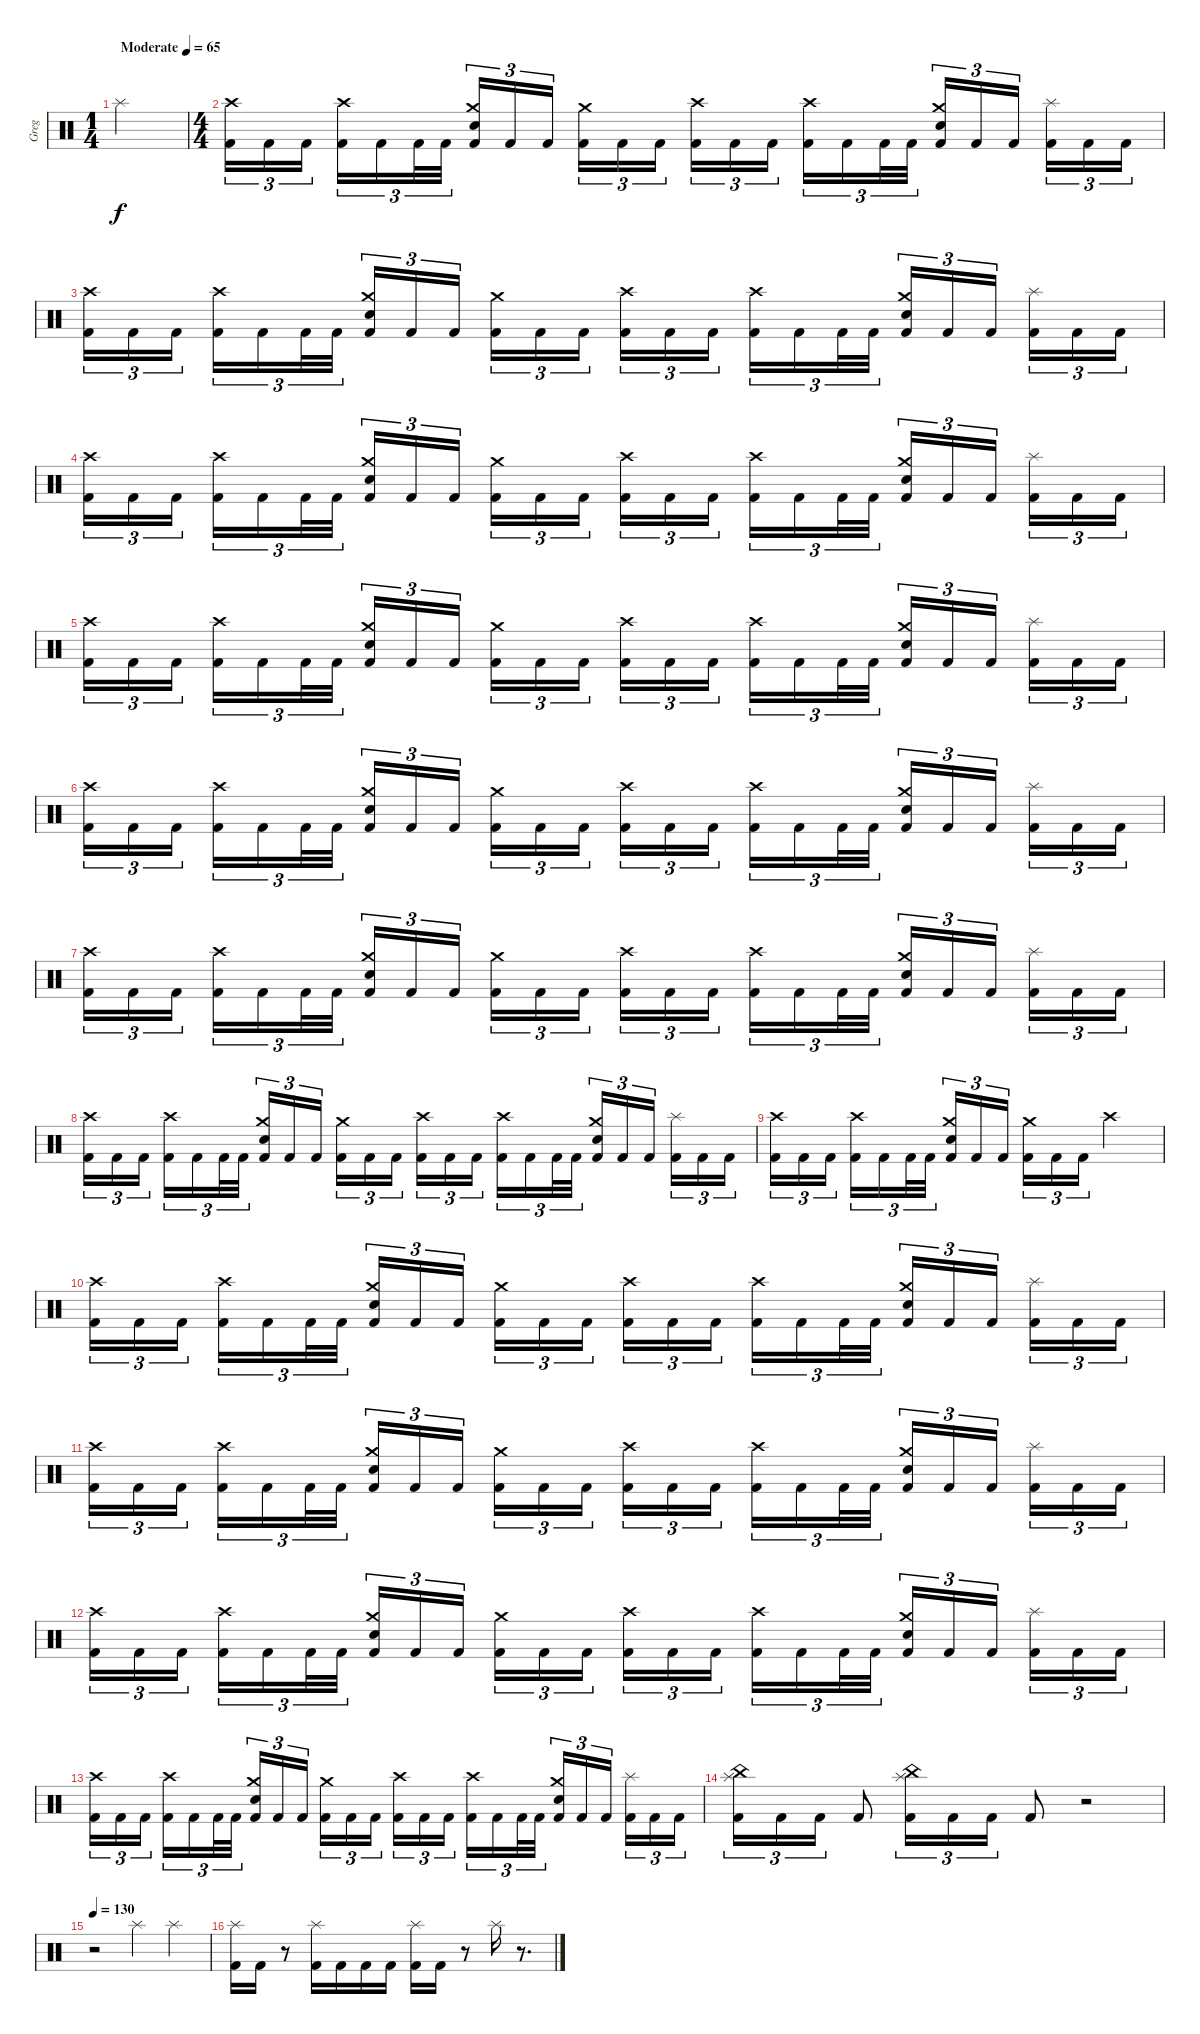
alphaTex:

\track ("Greg" "Greg") {instrument percussion}
\staff {score}
\articulation defaults
\ts (1 4)
\tempo (65 "Moderate")
\clef neutral
\ks c "Splash (hit)".4{dy f}
|
\ts (4 4)
("Crash high (hit)" "Kick (hit) 2").16{tu (3 2)} "Kick (hit) 2".16{tu (3 2)} "Kick (hit) 2".16{tu (3 2) beam splitsecondary} ("Crash high (hit)" "Kick (hit) 2").16{tu (3 2)} "Kick (hit) 2".16{tu (3 2)} "Kick (hit) 2".32{tu (3 2)} "Kick (hit) 2".32{tu (3 2)} ("Crash medium (hit)" "Snare (hit) 2" "Kick (hit) 2").16{tu (3 2)} "Kick (hit) 2".16{tu (3 2)} "Kick (hit) 2".16{tu (3 2) beam splitsecondary} ("Crash medium (hit)" "Kick (hit) 2").16{tu (3 2)} "Kick (hit) 2".16{tu (3 2)} "Kick (hit) 2".16{tu (3 2)} ("Crash high (hit)" "Kick (hit) 2").16{tu (3 2)} "Kick (hit) 2".16{tu (3 2)} "Kick (hit) 2".16{tu (3 2) beam splitsecondary} ("Crash high (hit)" "Kick (hit) 2").16{tu (3 2)} "Kick (hit) 2".16{tu (3 2)} "Kick (hit) 2".32{tu (3 2)} "Kick (hit) 2".32{tu (3 2)} ("Crash medium (hit)" "Snare (hit) 2" "Kick (hit) 2").16{tu (3 2)} "Kick (hit) 2".16{tu (3 2)} "Kick (hit) 2".16{tu (3 2) beam splitsecondary} ("Splash (hit)" "Kick (hit) 2").16{tu (3 2)} "Kick (hit) 2".16{tu (3 2)} "Kick (hit) 2".16{tu (3 2)} |
("Crash high (hit)" "Kick (hit) 2").16{tu (3 2)} "Kick (hit) 2".16{tu (3 2)} "Kick (hit) 2".16{tu (3 2) beam splitsecondary} ("Crash high (hit)" "Kick (hit) 2").16{tu (3 2)} "Kick (hit) 2".16{tu (3 2)} "Kick (hit) 2".32{tu (3 2)} "Kick (hit) 2".32{tu (3 2)} ("Crash medium (hit)" "Snare (hit) 2" "Kick (hit) 2").16{tu (3 2)} "Kick (hit) 2".16{tu (3 2)} "Kick (hit) 2".16{tu (3 2) beam splitsecondary} ("Crash medium (hit)" "Kick (hit) 2").16{tu (3 2)} "Kick (hit) 2".16{tu (3 2)} "Kick (hit) 2".16{tu (3 2)} ("Crash high (hit)" "Kick (hit) 2").16{tu (3 2)} "Kick (hit) 2".16{tu (3 2)} "Kick (hit) 2".16{tu (3 2) beam splitsecondary} ("Crash high (hit)" "Kick (hit) 2").16{tu (3 2)} "Kick (hit) 2".16{tu (3 2)} "Kick (hit) 2".32{tu (3 2)} "Kick (hit) 2".32{tu (3 2)} ("Crash medium (hit)" "Snare (hit) 2" "Kick (hit) 2").16{tu (3 2)} "Kick (hit) 2".16{tu (3 2)} "Kick (hit) 2".16{tu (3 2) beam splitsecondary} ("Splash (hit)" "Kick (hit) 2").16{tu (3 2)} "Kick (hit) 2".16{tu (3 2)} "Kick (hit) 2".16{tu (3 2)} |
("Crash high (hit)" "Kick (hit) 2").16{tu (3 2)} "Kick (hit) 2".16{tu (3 2)} "Kick (hit) 2".16{tu (3 2) beam splitsecondary} ("Crash high (hit)" "Kick (hit) 2").16{tu (3 2)} "Kick (hit) 2".16{tu (3 2)} "Kick (hit) 2".32{tu (3 2)} "Kick (hit) 2".32{tu (3 2)} ("Crash medium (hit)" "Snare (hit) 2" "Kick (hit) 2").16{tu (3 2)} "Kick (hit) 2".16{tu (3 2)} "Kick (hit) 2".16{tu (3 2) beam splitsecondary} ("Crash medium (hit)" "Kick (hit) 2").16{tu (3 2)} "Kick (hit) 2".16{tu (3 2)} "Kick (hit) 2".16{tu (3 2)} ("Crash high (hit)" "Kick (hit) 2").16{tu (3 2)} "Kick (hit) 2".16{tu (3 2)} "Kick (hit) 2".16{tu (3 2) beam splitsecondary} ("Crash high (hit)" "Kick (hit) 2").16{tu (3 2)} "Kick (hit) 2".16{tu (3 2)} "Kick (hit) 2".32{tu (3 2)} "Kick (hit) 2".32{tu (3 2)} ("Crash medium (hit)" "Snare (hit) 2" "Kick (hit) 2").16{tu (3 2)} "Kick (hit) 2".16{tu (3 2)} "Kick (hit) 2".16{tu (3 2) beam splitsecondary} ("Splash (hit)" "Kick (hit) 2").16{tu (3 2)} "Kick (hit) 2".16{tu (3 2)} "Kick (hit) 2".16{tu (3 2)} |
("Crash high (hit)" "Kick (hit) 2").16{tu (3 2)} "Kick (hit) 2".16{tu (3 2)} "Kick (hit) 2".16{tu (3 2) beam splitsecondary} ("Crash high (hit)" "Kick (hit) 2").16{tu (3 2)} "Kick (hit) 2".16{tu (3 2)} "Kick (hit) 2".32{tu (3 2)} "Kick (hit) 2".32{tu (3 2)} ("Crash medium (hit)" "Snare (hit) 2" "Kick (hit) 2").16{tu (3 2)} "Kick (hit) 2".16{tu (3 2)} "Kick (hit) 2".16{tu (3 2) beam splitsecondary} ("Crash medium (hit)" "Kick (hit) 2").16{tu (3 2)} "Kick (hit) 2".16{tu (3 2)} "Kick (hit) 2".16{tu (3 2)} ("Crash high (hit)" "Kick (hit) 2").16{tu (3 2)} "Kick (hit) 2".16{tu (3 2)} "Kick (hit) 2".16{tu (3 2) beam splitsecondary} ("Crash high (hit)" "Kick (hit) 2").16{tu (3 2)} "Kick (hit) 2".16{tu (3 2)} "Kick (hit) 2".32{tu (3 2)} "Kick (hit) 2".32{tu (3 2)} ("Crash medium (hit)" "Snare (hit) 2" "Kick (hit) 2").16{tu (3 2)} "Kick (hit) 2".16{tu (3 2)} "Kick (hit) 2".16{tu (3 2) beam splitsecondary} ("Splash (hit)" "Kick (hit) 2").16{tu (3 2)} "Kick (hit) 2".16{tu (3 2)} "Kick (hit) 2".16{tu (3 2)} |
("Crash high (hit)" "Kick (hit) 2").16{tu (3 2)} "Kick (hit) 2".16{tu (3 2)} "Kick (hit) 2".16{tu (3 2) beam splitsecondary} ("Crash high (hit)" "Kick (hit) 2").16{tu (3 2)} "Kick (hit) 2".16{tu (3 2)} "Kick (hit) 2".32{tu (3 2)} "Kick (hit) 2".32{tu (3 2)} ("Crash medium (hit)" "Snare (hit) 2" "Kick (hit) 2").16{tu (3 2)} "Kick (hit) 2".16{tu (3 2)} "Kick (hit) 2".16{tu (3 2) beam splitsecondary} ("Crash medium (hit)" "Kick (hit) 2").16{tu (3 2)} "Kick (hit) 2".16{tu (3 2)} "Kick (hit) 2".16{tu (3 2)} ("Crash high (hit)" "Kick (hit) 2").16{tu (3 2)} "Kick (hit) 2".16{tu (3 2)} "Kick (hit) 2".16{tu (3 2) beam splitsecondary} ("Crash high (hit)" "Kick (hit) 2").16{tu (3 2)} "Kick (hit) 2".16{tu (3 2)} "Kick (hit) 2".32{tu (3 2)} "Kick (hit) 2".32{tu (3 2)} ("Crash medium (hit)" "Snare (hit) 2" "Kick (hit) 2").16{tu (3 2)} "Kick (hit) 2".16{tu (3 2)} "Kick (hit) 2".16{tu (3 2) beam splitsecondary} ("Splash (hit)" "Kick (hit) 2").16{tu (3 2)} "Kick (hit) 2".16{tu (3 2)} "Kick (hit) 2".16{tu (3 2)} |
("Crash high (hit)" "Kick (hit) 2").16{tu (3 2)} "Kick (hit) 2".16{tu (3 2)} "Kick (hit) 2".16{tu (3 2) beam splitsecondary} ("Crash high (hit)" "Kick (hit) 2").16{tu (3 2)} "Kick (hit) 2".16{tu (3 2)} "Kick (hit) 2".32{tu (3 2)} "Kick (hit) 2".32{tu (3 2)} ("Crash medium (hit)" "Snare (hit) 2" "Kick (hit) 2").16{tu (3 2)} "Kick (hit) 2".16{tu (3 2)} "Kick (hit) 2".16{tu (3 2) beam splitsecondary} ("Crash medium (hit)" "Kick (hit) 2").16{tu (3 2)} "Kick (hit) 2".16{tu (3 2)} "Kick (hit) 2".16{tu (3 2)} ("Crash high (hit)" "Kick (hit) 2").16{tu (3 2)} "Kick (hit) 2".16{tu (3 2)} "Kick (hit) 2".16{tu (3 2) beam splitsecondary} ("Crash high (hit)" "Kick (hit) 2").16{tu (3 2)} "Kick (hit) 2".16{tu (3 2)} "Kick (hit) 2".32{tu (3 2)} "Kick (hit) 2".32{tu (3 2)} ("Crash medium (hit)" "Snare (hit) 2" "Kick (hit) 2").16{tu (3 2)} "Kick (hit) 2".16{tu (3 2)} "Kick (hit) 2".16{tu (3 2) beam splitsecondary} ("Splash (hit)" "Kick (hit) 2").16{tu (3 2)} "Kick (hit) 2".16{tu (3 2)} "Kick (hit) 2".16{tu (3 2)} |
("Crash high (hit)" "Kick (hit) 2").16{tu (3 2)} "Kick (hit) 2".16{tu (3 2)} "Kick (hit) 2".16{tu (3 2) beam splitsecondary} ("Crash high (hit)" "Kick (hit) 2").16{tu (3 2)} "Kick (hit) 2".16{tu (3 2)} "Kick (hit) 2".32{tu (3 2)} "Kick (hit) 2".32{tu (3 2)} ("Crash medium (hit)" "Snare (hit) 2" "Kick (hit) 2").16{tu (3 2)} "Kick (hit) 2".16{tu (3 2)} "Kick (hit) 2".16{tu (3 2) beam splitsecondary} ("Crash medium (hit)" "Kick (hit) 2").16{tu (3 2)} "Kick (hit) 2".16{tu (3 2)} "Kick (hit) 2".16{tu (3 2)} ("Crash high (hit)" "Kick (hit) 2").16{tu (3 2)} "Kick (hit) 2".16{tu (3 2)} "Kick (hit) 2".16{tu (3 2) beam splitsecondary} ("Crash high (hit)" "Kick (hit) 2").16{tu (3 2)} "Kick (hit) 2".16{tu (3 2)} "Kick (hit) 2".32{tu (3 2)} "Kick (hit) 2".32{tu (3 2)} ("Crash medium (hit)" "Snare (hit) 2" "Kick (hit) 2").16{tu (3 2)} "Kick (hit) 2".16{tu (3 2)} "Kick (hit) 2".16{tu (3 2) beam splitsecondary} ("Splash (hit)" "Kick (hit) 2").16{tu (3 2)} "Kick (hit) 2".16{tu (3 2)} "Kick (hit) 2".16{tu (3 2)} |
("Crash high (hit)" "Kick (hit) 2").16{tu (3 2)} "Kick (hit) 2".16{tu (3 2)} "Kick (hit) 2".16{tu (3 2) beam splitsecondary} ("Crash high (hit)" "Kick (hit) 2").16{tu (3 2)} "Kick (hit) 2".16{tu (3 2)} "Kick (hit) 2".32{tu (3 2)} "Kick (hit) 2".32{tu (3 2)} ("Crash medium (hit)" "Snare (hit) 2" "Kick (hit) 2").16{tu (3 2)} "Kick (hit) 2".16{tu (3 2)} "Kick (hit) 2".16{tu (3 2) beam splitsecondary} ("Crash medium (hit)" "Kick (hit) 2").16{tu (3 2)} "Kick (hit) 2".16{tu (3 2)} "Kick (hit) 2".16{tu (3 2)} "Crash high (hit)".2 |
("Crash high (hit)" "Kick (hit) 2").16{tu (3 2)} "Kick (hit) 2".16{tu (3 2)} "Kick (hit) 2".16{tu (3 2) beam splitsecondary} ("Crash high (hit)" "Kick (hit) 2").16{tu (3 2)} "Kick (hit) 2".16{tu (3 2)} "Kick (hit) 2".32{tu (3 2)} "Kick (hit) 2".32{tu (3 2)} ("Crash medium (hit)" "Snare (hit) 2" "Kick (hit) 2").16{tu (3 2)} "Kick (hit) 2".16{tu (3 2)} "Kick (hit) 2".16{tu (3 2) beam splitsecondary} ("Crash medium (hit)" "Kick (hit) 2").16{tu (3 2)} "Kick (hit) 2".16{tu (3 2)} "Kick (hit) 2".16{tu (3 2)} ("Crash high (hit)" "Kick (hit) 2").16{tu (3 2)} "Kick (hit) 2".16{tu (3 2)} "Kick (hit) 2".16{tu (3 2) beam splitsecondary} ("Crash high (hit)" "Kick (hit) 2").16{tu (3 2)} "Kick (hit) 2".16{tu (3 2)} "Kick (hit) 2".32{tu (3 2)} "Kick (hit) 2".32{tu (3 2)} ("Crash medium (hit)" "Snare (hit) 2" "Kick (hit) 2").16{tu (3 2)} "Kick (hit) 2".16{tu (3 2)} "Kick (hit) 2".16{tu (3 2) beam splitsecondary} ("Splash (hit)" "Kick (hit) 2").16{tu (3 2)} "Kick (hit) 2".16{tu (3 2)} "Kick (hit) 2".16{tu (3 2)} |
("Crash high (hit)" "Kick (hit) 2").16{tu (3 2)} "Kick (hit) 2".16{tu (3 2)} "Kick (hit) 2".16{tu (3 2) beam splitsecondary} ("Crash high (hit)" "Kick (hit) 2").16{tu (3 2)} "Kick (hit) 2".16{tu (3 2)} "Kick (hit) 2".32{tu (3 2)} "Kick (hit) 2".32{tu (3 2)} ("Crash medium (hit)" "Snare (hit) 2" "Kick (hit) 2").16{tu (3 2)} "Kick (hit) 2".16{tu (3 2)} "Kick (hit) 2".16{tu (3 2) beam splitsecondary} ("Crash medium (hit)" "Kick (hit) 2").16{tu (3 2)} "Kick (hit) 2".16{tu (3 2)} "Kick (hit) 2".16{tu (3 2)} ("Crash high (hit)" "Kick (hit) 2").16{tu (3 2)} "Kick (hit) 2".16{tu (3 2)} "Kick (hit) 2".16{tu (3 2) beam splitsecondary} ("Crash high (hit)" "Kick (hit) 2").16{tu (3 2)} "Kick (hit) 2".16{tu (3 2)} "Kick (hit) 2".32{tu (3 2)} "Kick (hit) 2".32{tu (3 2)} ("Crash medium (hit)" "Snare (hit) 2" "Kick (hit) 2").16{tu (3 2)} "Kick (hit) 2".16{tu (3 2)} "Kick (hit) 2".16{tu (3 2) beam splitsecondary} ("Splash (hit)" "Kick (hit) 2").16{tu (3 2)} "Kick (hit) 2".16{tu (3 2)} "Kick (hit) 2".16{tu (3 2)} |
("Crash high (hit)" "Kick (hit) 2").16{tu (3 2)} "Kick (hit) 2".16{tu (3 2)} "Kick (hit) 2".16{tu (3 2) beam splitsecondary} ("Crash high (hit)" "Kick (hit) 2").16{tu (3 2)} "Kick (hit) 2".16{tu (3 2)} "Kick (hit) 2".32{tu (3 2)} "Kick (hit) 2".32{tu (3 2)} ("Crash medium (hit)" "Snare (hit) 2" "Kick (hit) 2").16{tu (3 2)} "Kick (hit) 2".16{tu (3 2)} "Kick (hit) 2".16{tu (3 2) beam splitsecondary} ("Crash medium (hit)" "Kick (hit) 2").16{tu (3 2)} "Kick (hit) 2".16{tu (3 2)} "Kick (hit) 2".16{tu (3 2)} ("Crash high (hit)" "Kick (hit) 2").16{tu (3 2)} "Kick (hit) 2".16{tu (3 2)} "Kick (hit) 2".16{tu (3 2) beam splitsecondary} ("Crash high (hit)" "Kick (hit) 2").16{tu (3 2)} "Kick (hit) 2".16{tu (3 2)} "Kick (hit) 2".32{tu (3 2)} "Kick (hit) 2".32{tu (3 2)} ("Crash medium (hit)" "Snare (hit) 2" "Kick (hit) 2").16{tu (3 2)} "Kick (hit) 2".16{tu (3 2)} "Kick (hit) 2".16{tu (3 2) beam splitsecondary} ("Splash (hit)" "Kick (hit) 2").16{tu (3 2)} "Kick (hit) 2".16{tu (3 2)} "Kick (hit) 2".16{tu (3 2)} |
("Crash high (hit)" "Kick (hit) 2").16{tu (3 2)} "Kick (hit) 2".16{tu (3 2)} "Kick (hit) 2".16{tu (3 2) beam splitsecondary} ("Crash high (hit)" "Kick (hit) 2").16{tu (3 2)} "Kick (hit) 2".16{tu (3 2)} "Kick (hit) 2".32{tu (3 2)} "Kick (hit) 2".32{tu (3 2)} ("Crash medium (hit)" "Snare (hit) 2" "Kick (hit) 2").16{tu (3 2)} "Kick (hit) 2".16{tu (3 2)} "Kick (hit) 2".16{tu (3 2) beam splitsecondary} ("Crash medium (hit)" "Kick (hit) 2").16{tu (3 2)} "Kick (hit) 2".16{tu (3 2)} "Kick (hit) 2".16{tu (3 2)} ("Crash high (hit)" "Kick (hit) 2").16{tu (3 2)} "Kick (hit) 2".16{tu (3 2)} "Kick (hit) 2".16{tu (3 2) beam splitsecondary} ("Crash high (hit)" "Kick (hit) 2").16{tu (3 2)} "Kick (hit) 2".16{tu (3 2)} "Kick (hit) 2".32{tu (3 2)} "Kick (hit) 2".32{tu (3 2)} ("Crash medium (hit)" "Snare (hit) 2" "Kick (hit) 2").16{tu (3 2)} "Kick (hit) 2".16{tu (3 2)} "Kick (hit) 2".16{tu (3 2) beam splitsecondary} ("Splash (hit)" "Kick (hit) 2").16{tu (3 2)} "Kick (hit) 2".16{tu (3 2)} "Kick (hit) 2".16{tu (3 2)} |
("China (hit)" "Splash (hit)" "Kick (hit) 2").16{tu (3 2)} "Kick (hit) 2".16{tu (3 2)} "Kick (hit) 2".16{tu (3 2)} "Kick (hit) 2".8 ("China (hit)" "Splash (hit)" "Kick (hit) 2").16{tu (3 2)} "Kick (hit) 2".16{tu (3 2)} "Kick (hit) 2".16{tu (3 2)} "Kick (hit) 2".8 r.2 |
\tempo 130
r.2 "Splash (hit)".4 "Splash (hit)".4 |
("Splash (hit)" "Kick (hit) 2").16 "Kick (hit) 2".16 r.8 ("Splash (hit)" "Kick (hit) 2").16 "Kick (hit) 2".16 "Kick (hit) 2".16 "Kick (hit) 2".16 ("Splash (hit)" "Kick (hit) 2").16 "Kick (hit) 2".16 r.8 "Splash (hit)".16 r.8{d}
